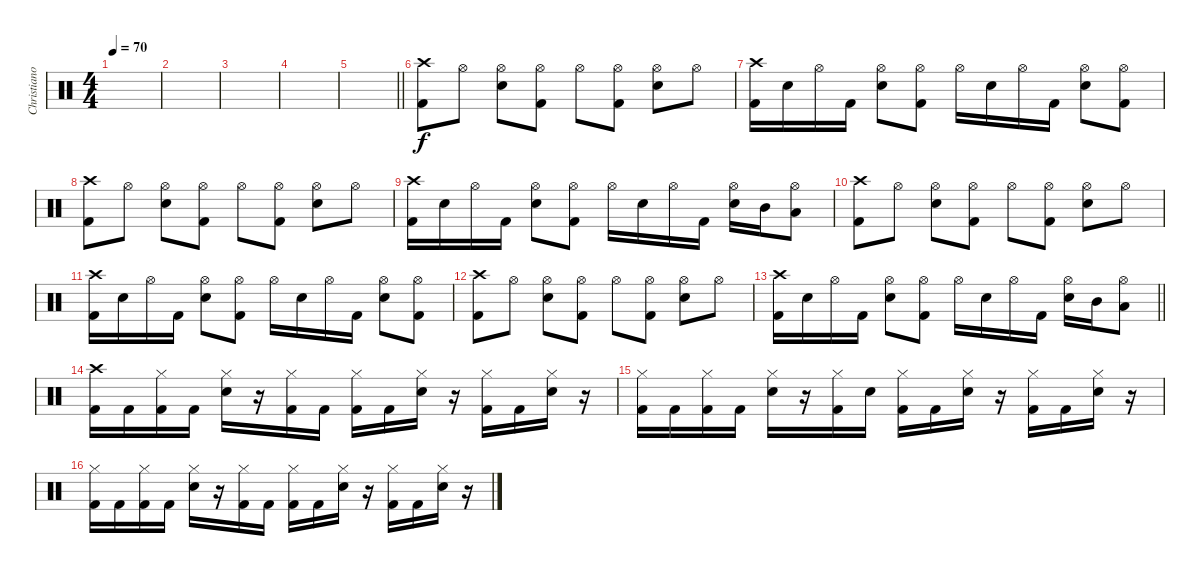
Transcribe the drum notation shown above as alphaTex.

\track ("Christiano Mozzati" "Christiano") {instrument percussion}
\staff {score}
\articulation defaults
\ts (4 4)
\tempo 70
\clef neutral
\ks c
|
|
|
|
\barLineRight lightlight
|
("Crash high (hit)" "Kick (hit) 2").8 "Hi-Hat (open)".8 ("Hi-Hat (open)" "Snare (hit) 2").8 ("Hi-Hat (open)" "Kick (hit) 2").8 "Hi-Hat (open)".8 ("Hi-Hat (open)" "Kick (hit) 2").8 ("Hi-Hat (open)" "Snare (hit) 2").8 "Hi-Hat (open)".8 |
("Crash high (hit)" "Kick (hit) 2").16 "Snare (hit) 2".16 "Hi-Hat (open)".16 "Kick (hit) 2".16 ("Hi-Hat (open)" "Snare (hit) 2").8 ("Hi-Hat (open)" "Kick (hit) 2").8 "Hi-Hat (open)".16 "Snare (hit) 2".16 "Hi-Hat (open)".16 "Kick (hit) 2".16 ("Hi-Hat (open)" "Snare (hit) 2").8 ("Hi-Hat (open)" "Kick (hit) 2").8 |
("Crash high (hit)" "Kick (hit) 2").8 "Hi-Hat (open)".8 ("Hi-Hat (open)" "Snare (hit) 2").8 ("Hi-Hat (open)" "Kick (hit) 2").8 "Hi-Hat (open)".8 ("Hi-Hat (open)" "Kick (hit) 2").8 ("Hi-Hat (open)" "Snare (hit) 2").8 "Hi-Hat (open)".8 |
("Crash high (hit)" "Kick (hit) 2").16 "Snare (hit) 2".16 "Hi-Hat (open)".16 "Kick (hit) 2".16 ("Hi-Hat (open)" "Snare (hit) 2").8 ("Hi-Hat (open)" "Kick (hit) 2").8 "Hi-Hat (open)".16 "Snare (hit) 2".16 "Hi-Hat (open)".16 "Kick (hit) 2".16 ("Hi-Hat (open)" "Snare (hit) 2").16 "Mid Tom (hit)".16 ("Hi-Hat (open)" "Low Tom (hit)").8 |
("Crash high (hit)" "Kick (hit) 2").8 "Hi-Hat (open)".8 ("Hi-Hat (open)" "Snare (hit) 2").8 ("Hi-Hat (open)" "Kick (hit) 2").8 "Hi-Hat (open)".8 ("Hi-Hat (open)" "Kick (hit) 2").8 ("Hi-Hat (open)" "Snare (hit) 2").8 "Hi-Hat (open)".8 |
("Crash high (hit)" "Kick (hit) 2").16 "Snare (hit) 2".16 "Hi-Hat (open)".16 "Kick (hit) 2".16 ("Hi-Hat (open)" "Snare (hit) 2").8 ("Hi-Hat (open)" "Kick (hit) 2").8 "Hi-Hat (open)".16 "Snare (hit) 2".16 "Hi-Hat (open)".16 "Kick (hit) 2".16 ("Hi-Hat (open)" "Snare (hit) 2").8 ("Hi-Hat (open)" "Kick (hit) 2").8 |
("Crash high (hit)" "Kick (hit) 2").8 "Hi-Hat (open)".8 ("Hi-Hat (open)" "Snare (hit) 2").8 ("Hi-Hat (open)" "Kick (hit) 2").8 "Hi-Hat (open)".8 ("Hi-Hat (open)" "Kick (hit) 2").8 ("Hi-Hat (open)" "Snare (hit) 2").8 "Hi-Hat (open)".8 |
\barLineRight lightlight
("Crash high (hit)" "Kick (hit) 2").16 "Snare (hit) 2".16 "Hi-Hat (open)".16 "Kick (hit) 2".16 ("Hi-Hat (open)" "Snare (hit) 2").8 ("Hi-Hat (open)" "Kick (hit) 2").8 "Hi-Hat (open)".16 "Snare (hit) 2".16 "Hi-Hat (open)".16 "Kick (hit) 2".16 ("Hi-Hat (open)" "Snare (hit) 2").16 "Mid Tom (hit)".16 ("Hi-Hat (open)" "Low Tom (hit)").8 |
("Crash high (hit)" "Kick (hit) 2").16 "Kick (hit) 2".16 ("Hi-Hat (closed)" "Kick (hit) 2").16 "Kick (hit) 2".16 ("Hi-Hat (closed)" "Snare (hit) 2").16 r.16 ("Hi-Hat (closed)" "Kick (hit) 2").16 "Kick (hit) 2".16 ("Hi-Hat (closed)" "Kick (hit) 2").16 "Kick (hit) 2".16 ("Hi-Hat (closed)" "Snare (hit) 2").16 r.16 ("Hi-Hat (closed)" "Kick (hit) 2").16 "Kick (hit) 2".16 ("Hi-Hat (closed)" "Snare (hit) 2").16 r.16 |
("Hi-Hat (closed)" "Kick (hit) 2").16 "Kick (hit) 2".16 ("Hi-Hat (closed)" "Kick (hit) 2").16 "Kick (hit) 2".16 ("Hi-Hat (closed)" "Snare (hit) 2").16 r.16 ("Hi-Hat (closed)" "Kick (hit) 2").16 "Snare (hit) 2".16 ("Hi-Hat (closed)" "Kick (hit) 2").16 "Kick (hit) 2".16 ("Hi-Hat (closed)" "Snare (hit) 2").16 r.16 ("Hi-Hat (closed)" "Kick (hit) 2").16 "Kick (hit) 2".16 ("Hi-Hat (closed)" "Snare (hit) 2").16 r.16 |
("Hi-Hat (closed)" "Kick (hit) 2").16 "Kick (hit) 2".16 ("Hi-Hat (closed)" "Kick (hit) 2").16 "Kick (hit) 2".16 ("Hi-Hat (closed)" "Snare (hit) 2").16 r.16 ("Hi-Hat (closed)" "Kick (hit) 2").16 "Kick (hit) 2".16 ("Hi-Hat (closed)" "Kick (hit) 2").16 "Kick (hit) 2".16 ("Hi-Hat (closed)" "Snare (hit) 2").16 r.16 ("Hi-Hat (closed)" "Kick (hit) 2").16 "Kick (hit) 2".16 ("Hi-Hat (closed)" "Snare (hit) 2").16 r.16
